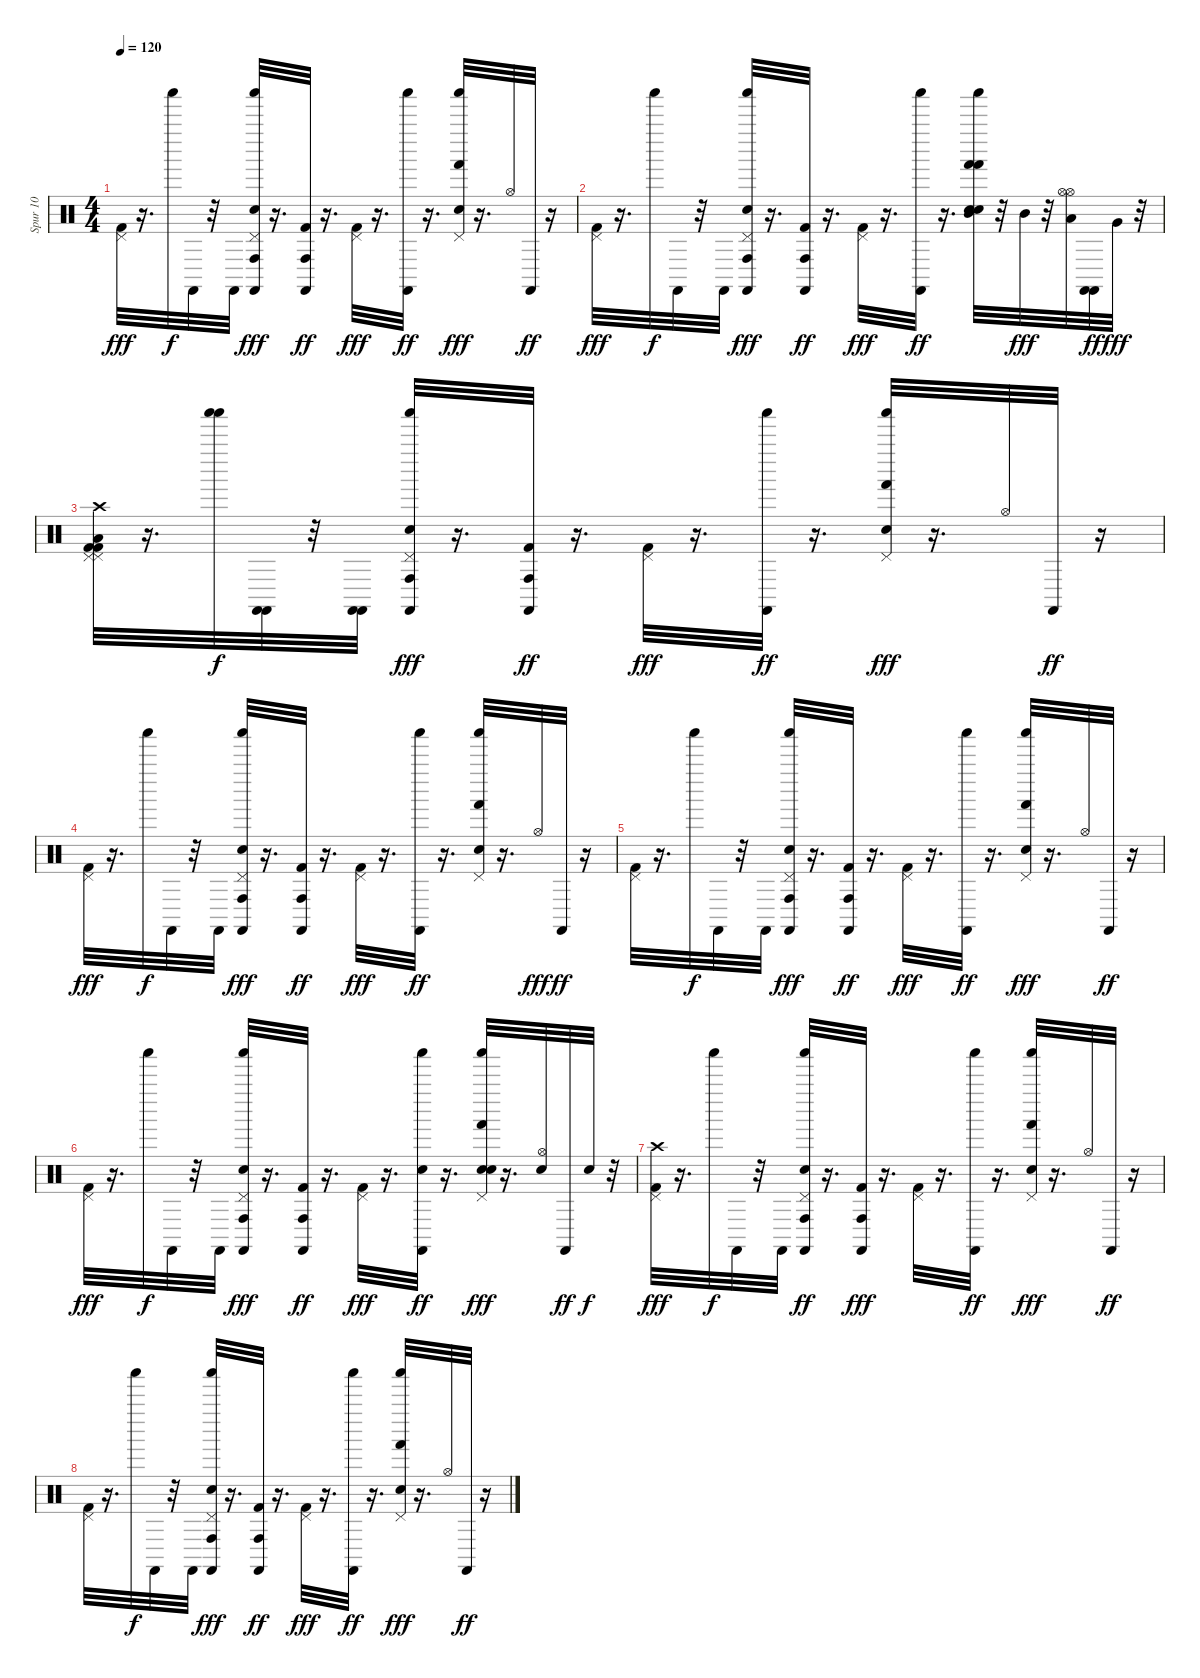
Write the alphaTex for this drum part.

\track ("Spur 10" "Spur 10") {instrument percussion}
\staff {score}
\articulation defaults
\ts (4 4)
\tempo 120
\clef neutral
\ks c
("Pedal Hi-Hat (hit)" "Kick (hit) 2").32{dy fff} r.16{d} "Shaker (hit)".32{dy f} "Castanets (hit)".32 r.32 "Castanets (hit)".32 ("Castanets (hit)" "Pedal Hi-Hat (hit)" "Snare (hit) 2" "Shaker (hit)" "Conga high (hit)").32{dy fff} r.16{d} ("Conga high (hit)" "Castanets (hit)" "Kick (hit) 2").32{dy ff} r.16{d} ("Pedal Hi-Hat (hit)" "Kick (hit) 2").32{dy fff} r.16{d} ("Castanets (hit)" "Shaker (hit)").32{dy ff} r.16{d} ("Hand (hit)" "Pedal Hi-Hat (hit)" "Shaker (hit)" "Snare (hit) 2").32{dy fff} r.16{d} "Hi-Hat (open)".32 "Castanets (hit)".32{dy ff} r.16 |
("Pedal Hi-Hat (hit)" "Kick (hit) 2").32{dy fff} r.16{d} "Shaker (hit)".32{dy f} "Castanets (hit)".32 r.32 "Castanets (hit)".32 ("Snare (hit) 2" "Pedal Hi-Hat (hit)" "Castanets (hit)" "Conga high (hit)" "Shaker (hit)").32{dy fff} r.16{d} ("Castanets (hit)" "Conga high (hit)" "Kick (hit) 2").32{dy ff} r.16{d} ("Kick (hit) 2" "Pedal Hi-Hat (hit)").32{dy fff} r.16{d} ("Castanets (hit)" "Shaker (hit)").32{dy ff} r.16{d} ("Mid Tom (hit)" "Snare (hit) 2" "Snare (hit) 2" "Hand (hit)" "Hand (hit)" "Shaker (hit)").32 r.32 "Mid Tom (hit)".32{dy fff} r.32 ("Low Tom (hit)" "Hi-Hat (open)" "Hi-Hat (open)").32 ("Castanets (hit)" "Castanets (hit)").32{dy ff} "Very Low Tom (hit)".32{dy fff} r.32 |
("Crash high (hit)" "Low Floor Tom (hit)" "Pedal Hi-Hat (hit)" "Kick (hit) 2" "Pedal Hi-Hat (hit)" "Kick (hit) 2").32 r.16{d} ("Shaker (hit)" "Shaker (hit)").32{dy f} ("Castanets (hit)" "Castanets (hit)").32 r.32 ("Castanets (hit)" "Castanets (hit)").32 ("Castanets (hit)" "Pedal Hi-Hat (hit)" "Conga high (hit)" "Shaker (hit)" "Snare (hit) 2").32{dy fff} r.16{d} ("Castanets (hit)" "Conga high (hit)" "Kick (hit) 2").32{dy ff} r.16{d} ("Pedal Hi-Hat (hit)" "Kick (hit) 2").32{dy fff} r.16{d} ("Castanets (hit)" "Shaker (hit)").32{dy ff} r.16{d} ("Hand (hit)" "Pedal Hi-Hat (hit)" "Shaker (hit)" "Snare (hit) 2").32{dy fff} r.16{d} "Hi-Hat (open)".32 "Castanets (hit)".32{dy ff} r.16 |
("Pedal Hi-Hat (hit)" "Kick (hit) 2").32{dy fff} r.16{d} "Shaker (hit)".32{dy f} "Castanets (hit)".32 r.32 "Castanets (hit)".32 ("Conga high (hit)" "Pedal Hi-Hat (hit)" "Castanets (hit)" "Shaker (hit)" "Snare (hit) 2").32{dy fff} r.16{d} ("Kick (hit) 2" "Conga high (hit)" "Castanets (hit)").32{dy ff} r.16{d} ("Kick (hit) 2" "Pedal Hi-Hat (hit)").32{dy fff} r.16{d} ("Shaker (hit)" "Castanets (hit)").32{dy ff} r.16{d} ("Pedal Hi-Hat (hit)" "Snare (hit) 2" "Hand (hit)" "Shaker (hit)").32 r.16{d} "Hi-Hat (open)".32{dy fff} "Castanets (hit)".32{dy ff} r.16 |
("Kick (hit) 2" "Pedal Hi-Hat (hit)").32 r.16{d} "Shaker (hit)".32{dy f} "Castanets (hit)".32 r.32 "Castanets (hit)".32 ("Shaker (hit)" "Pedal Hi-Hat (hit)" "Castanets (hit)" "Snare (hit) 2" "Conga high (hit)").32{dy fff} r.16{d} ("Kick (hit) 2" "Conga high (hit)" "Castanets (hit)").32{dy ff} r.16{d} ("Kick (hit) 2" "Pedal Hi-Hat (hit)").32{dy fff} r.16{d} ("Castanets (hit)" "Shaker (hit)").32{dy ff} r.16{d} ("Snare (hit) 2" "Pedal Hi-Hat (hit)" "Shaker (hit)" "Hand (hit)").32{dy fff} r.16{d} "Hi-Hat (open)".32 "Castanets (hit)".32{dy ff} r.16 |
("Pedal Hi-Hat (hit)" "Kick (hit) 2").32{dy fff} r.16{d} "Shaker (hit)".32{dy f} "Castanets (hit)".32 r.32 "Castanets (hit)".32 ("Shaker (hit)" "Conga high (hit)" "Pedal Hi-Hat (hit)" "Castanets (hit)" "Snare (hit) 2").32{dy fff} r.16{d} ("Castanets (hit)" "Conga high (hit)" "Kick (hit) 2").32{dy ff} r.16{d} ("Kick (hit) 2" "Pedal Hi-Hat (hit)").32{dy fff} r.16{d} ("Electric Snare (hit)" "Shaker (hit)" "Castanets (hit)").32{dy ff} r.16{d} ("Electric Snare (hit)" "Pedal Hi-Hat (hit)" "Shaker (hit)" "Snare (hit) 2" "Hand (hit)").32{dy fff} r.16{d} ("Snare (hit) 2" "Hi-Hat (open)").32 "Castanets (hit)".32{dy ff} "Snare (hit) 2".32{dy f} r.32 |
("Crash high (hit)" "Pedal Hi-Hat (hit)" "Kick (hit) 2").32{dy fff} r.16{d} "Shaker (hit)".32{dy f} "Castanets (hit)".32 r.32 "Castanets (hit)".32 ("Conga high (hit)" "Pedal Hi-Hat (hit)" "Shaker (hit)" "Snare (hit) 2" "Castanets (hit)").32{dy ff} r.16{d} ("Kick (hit) 2" "Castanets (hit)" "Conga high (hit)").32{dy fff} r.16{d} ("Pedal Hi-Hat (hit)" "Kick (hit) 2").32 r.16{d} ("Castanets (hit)" "Shaker (hit)").32{dy ff} r.16{d} ("Hand (hit)" "Snare (hit) 2" "Shaker (hit)" "Pedal Hi-Hat (hit)").32{dy fff} r.16{d} "Hi-Hat (open)".32 "Castanets (hit)".32{dy ff} r.16 |
("Kick (hit) 2" "Pedal Hi-Hat (hit)").32 r.16{d} "Shaker (hit)".32{dy f} "Castanets (hit)".32 r.32 "Castanets (hit)".32 ("Castanets (hit)" "Pedal Hi-Hat (hit)" "Shaker (hit)" "Snare (hit) 2" "Conga high (hit)").32{dy fff} r.16{d} ("Conga high (hit)" "Kick (hit) 2" "Castanets (hit)").32{dy ff} r.16{d} ("Kick (hit) 2" "Pedal Hi-Hat (hit)").32{dy fff} r.16{d} ("Shaker (hit)" "Castanets (hit)").32{dy ff} r.16{d} ("Shaker (hit)" "Hand (hit)" "Snare (hit) 2" "Pedal Hi-Hat (hit)").32{dy fff} r.16{d} "Hi-Hat (open)".32 "Castanets (hit)".32{dy ff} r.16
